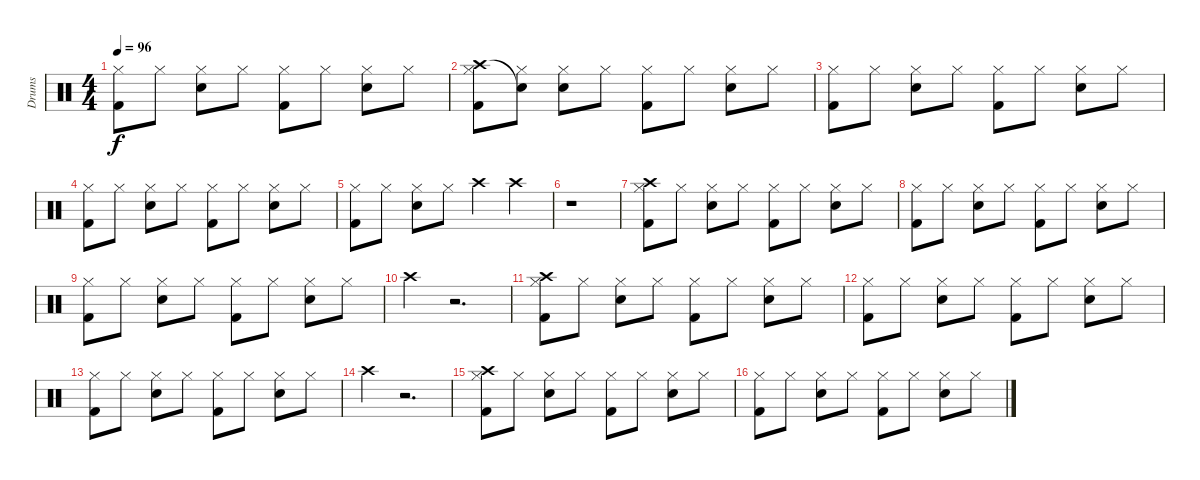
\track ("Drums" "Drums") {instrument percussion}
\staff {score}
\articulation defaults
\ts (4 4)
\tempo 96
\clef neutral
\ks c
("Hi-Hat (closed)" "Kick (hit) 2").8{dy f} "Hi-Hat (closed)".8 ("Hi-Hat (closed)" "Snare (hit) 2").8 "Hi-Hat (closed)".8 ("Hi-Hat (closed)" "Kick (hit) 2").8 "Hi-Hat (closed)".8 ("Hi-Hat (closed)" "Snare (hit) 2").8 "Hi-Hat (closed)".8 |
("Crash high (hit)" "Hi-Hat (closed)" "Kick (hit) 2").8 ("Snare (hit)"{t} "Hi-Hat (closed)").8 ("Hi-Hat (closed)" "Snare (hit) 2").8 "Hi-Hat (closed)".8 ("Hi-Hat (closed)" "Kick (hit) 2").8 "Hi-Hat (closed)".8 ("Hi-Hat (closed)" "Snare (hit) 2").8 "Hi-Hat (closed)".8 |
("Hi-Hat (closed)" "Kick (hit) 2").8 "Hi-Hat (closed)".8 ("Hi-Hat (closed)" "Snare (hit) 2").8 "Hi-Hat (closed)".8 ("Hi-Hat (closed)" "Kick (hit) 2").8 "Hi-Hat (closed)".8 ("Hi-Hat (closed)" "Snare (hit) 2").8 "Hi-Hat (closed)".8 |
("Hi-Hat (closed)" "Kick (hit) 2").8 "Hi-Hat (closed)".8 ("Hi-Hat (closed)" "Snare (hit) 2").8 "Hi-Hat (closed)".8 ("Hi-Hat (closed)" "Kick (hit) 2").8 "Hi-Hat (closed)".8 ("Hi-Hat (closed)" "Snare (hit) 2").8 "Hi-Hat (closed)".8 |
("Hi-Hat (closed)" "Kick (hit) 2").8 "Hi-Hat (closed)".8 ("Hi-Hat (closed)" "Snare (hit) 2").8 "Hi-Hat (closed)".8 "Crash high (hit)".4 "Crash high (hit)".4 |
r.1 |
("Crash high (hit)" "Hi-Hat (closed)" "Kick (hit) 2").8 "Hi-Hat (closed)".8 ("Hi-Hat (closed)" "Snare (hit) 2").8 "Hi-Hat (closed)".8 ("Hi-Hat (closed)" "Kick (hit) 2").8 "Hi-Hat (closed)".8 ("Hi-Hat (closed)" "Snare (hit) 2").8 "Hi-Hat (closed)".8 |
("Hi-Hat (closed)" "Kick (hit) 2").8 "Hi-Hat (closed)".8 ("Hi-Hat (closed)" "Snare (hit) 2").8 "Hi-Hat (closed)".8 ("Hi-Hat (closed)" "Kick (hit) 2").8 "Hi-Hat (closed)".8 ("Hi-Hat (closed)" "Snare (hit) 2").8 "Hi-Hat (closed)".8 |
("Hi-Hat (closed)" "Kick (hit) 2").8 "Hi-Hat (closed)".8 ("Hi-Hat (closed)" "Snare (hit) 2").8 "Hi-Hat (closed)".8 ("Hi-Hat (closed)" "Kick (hit) 2").8 "Hi-Hat (closed)".8 ("Hi-Hat (closed)" "Snare (hit) 2").8 "Hi-Hat (closed)".8 |
"Crash high (hit)".4 r.2{d} |
("Crash high (hit)" "Hi-Hat (closed)" "Kick (hit) 2").8 "Hi-Hat (closed)".8 ("Hi-Hat (closed)" "Snare (hit) 2").8 "Hi-Hat (closed)".8 ("Hi-Hat (closed)" "Kick (hit) 2").8 "Hi-Hat (closed)".8 ("Hi-Hat (closed)" "Snare (hit) 2").8 "Hi-Hat (closed)".8 |
("Hi-Hat (closed)" "Kick (hit) 2").8 "Hi-Hat (closed)".8 ("Hi-Hat (closed)" "Snare (hit) 2").8 "Hi-Hat (closed)".8 ("Hi-Hat (closed)" "Kick (hit) 2").8 "Hi-Hat (closed)".8 ("Hi-Hat (closed)" "Snare (hit) 2").8 "Hi-Hat (closed)".8 |
("Hi-Hat (closed)" "Kick (hit) 2").8 "Hi-Hat (closed)".8 ("Hi-Hat (closed)" "Snare (hit) 2").8 "Hi-Hat (closed)".8 ("Hi-Hat (closed)" "Kick (hit) 2").8 "Hi-Hat (closed)".8 ("Hi-Hat (closed)" "Snare (hit) 2").8 "Hi-Hat (closed)".8 |
"Crash high (hit)".4 r.2{d} |
("Crash high (hit)" "Hi-Hat (closed)" "Kick (hit) 2").8 "Hi-Hat (closed)".8 ("Hi-Hat (closed)" "Snare (hit) 2").8 "Hi-Hat (closed)".8 ("Hi-Hat (closed)" "Kick (hit) 2").8 "Hi-Hat (closed)".8 ("Hi-Hat (closed)" "Snare (hit) 2").8 "Hi-Hat (closed)".8 |
("Hi-Hat (closed)" "Kick (hit) 2").8 "Hi-Hat (closed)".8 ("Hi-Hat (closed)" "Snare (hit) 2").8 "Hi-Hat (closed)".8 ("Hi-Hat (closed)" "Kick (hit) 2").8 "Hi-Hat (closed)".8 ("Hi-Hat (closed)" "Snare (hit) 2").8 "Hi-Hat (closed)".8
